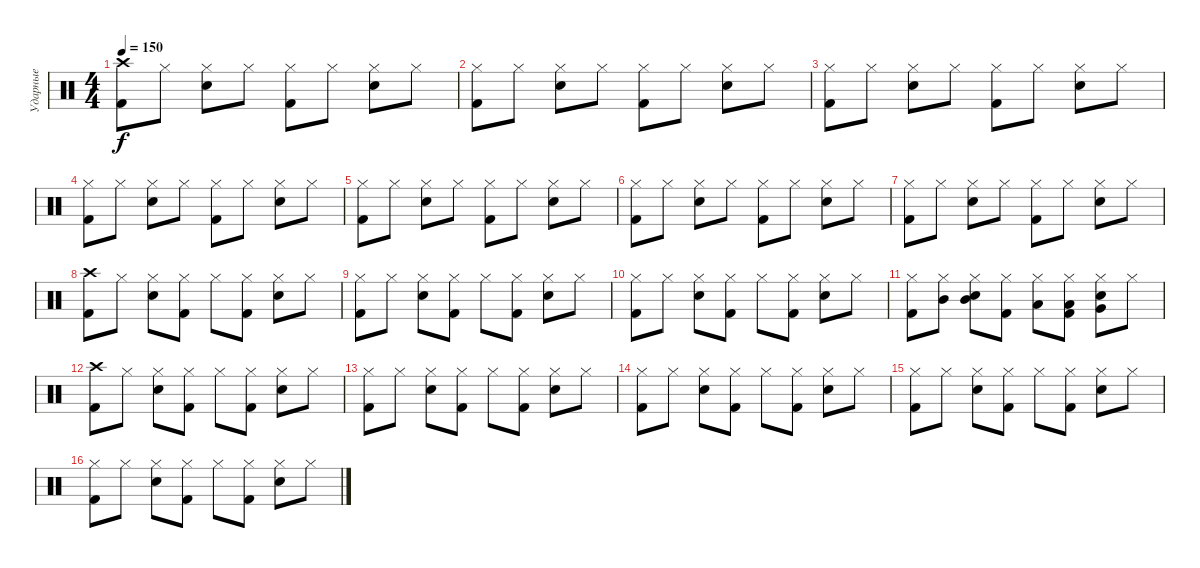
\track ("Ударные" "Ударные") {instrument percussion}
\staff {score}
\articulation defaults
\ts (4 4)
\tempo 150
\clef neutral
\ks c
("Crash high (hit)" "Kick (hit) 2").8{dy f} "Hi-Hat (closed)".8 ("Hi-Hat (closed)" "Snare (hit) 2").8 "Hi-Hat (closed)".8 ("Hi-Hat (closed)" "Kick (hit) 2").8 "Hi-Hat (closed)".8 ("Hi-Hat (closed)" "Snare (hit) 2").8 "Hi-Hat (closed)".8 |
("Hi-Hat (closed)" "Kick (hit) 2").8 "Hi-Hat (closed)".8 ("Hi-Hat (closed)" "Snare (hit) 2").8 "Hi-Hat (closed)".8 ("Hi-Hat (closed)" "Kick (hit) 2").8 "Hi-Hat (closed)".8 ("Hi-Hat (closed)" "Snare (hit) 2").8 "Hi-Hat (closed)".8 |
("Hi-Hat (closed)" "Kick (hit) 2").8 "Hi-Hat (closed)".8 ("Hi-Hat (closed)" "Snare (hit) 2").8 "Hi-Hat (closed)".8 ("Hi-Hat (closed)" "Kick (hit) 2").8 "Hi-Hat (closed)".8 ("Hi-Hat (closed)" "Snare (hit) 2").8 "Hi-Hat (closed)".8 |
("Hi-Hat (closed)" "Kick (hit) 2").8 "Hi-Hat (closed)".8 ("Hi-Hat (closed)" "Snare (hit) 2").8 "Hi-Hat (closed)".8 ("Hi-Hat (closed)" "Kick (hit) 2").8 "Hi-Hat (closed)".8 ("Hi-Hat (closed)" "Snare (hit) 2").8 "Hi-Hat (closed)".8 |
("Hi-Hat (closed)" "Kick (hit) 2").8 "Hi-Hat (closed)".8 ("Hi-Hat (closed)" "Snare (hit) 2").8 "Hi-Hat (closed)".8 ("Hi-Hat (closed)" "Kick (hit) 2").8 "Hi-Hat (closed)".8 ("Hi-Hat (closed)" "Snare (hit) 2").8 "Hi-Hat (closed)".8 |
("Hi-Hat (closed)" "Kick (hit) 2").8 "Hi-Hat (closed)".8 ("Hi-Hat (closed)" "Snare (hit) 2").8 "Hi-Hat (closed)".8 ("Hi-Hat (closed)" "Kick (hit) 2").8 "Hi-Hat (closed)".8 ("Hi-Hat (closed)" "Snare (hit) 2").8 "Hi-Hat (closed)".8 |
("Hi-Hat (closed)" "Kick (hit) 2").8 "Hi-Hat (closed)".8 ("Hi-Hat (closed)" "Snare (hit) 2").8 "Hi-Hat (closed)".8 ("Hi-Hat (closed)" "Kick (hit) 2").8 "Hi-Hat (closed)".8 ("Hi-Hat (closed)" "Snare (hit) 2").8 "Hi-Hat (closed)".8 |
("Crash high (hit)" "Kick (hit) 2").8 "Hi-Hat (closed)".8 ("Hi-Hat (closed)" "Snare (hit) 2").8 ("Hi-Hat (closed)" "Kick (hit) 2").8 "Hi-Hat (closed)".8 ("Hi-Hat (closed)" "Kick (hit) 2").8 ("Hi-Hat (closed)" "Snare (hit) 2").8 "Hi-Hat (closed)".8 |
("Hi-Hat (closed)" "Kick (hit) 2").8 "Hi-Hat (closed)".8 ("Hi-Hat (closed)" "Snare (hit) 2").8 ("Hi-Hat (closed)" "Kick (hit) 2").8 "Hi-Hat (closed)".8 ("Hi-Hat (closed)" "Kick (hit) 2").8 ("Hi-Hat (closed)" "Snare (hit) 2").8 "Hi-Hat (closed)".8 |
("Hi-Hat (closed)" "Kick (hit) 2").8 "Hi-Hat (closed)".8 ("Hi-Hat (closed)" "Snare (hit) 2").8 ("Hi-Hat (closed)" "Kick (hit) 2").8 "Hi-Hat (closed)".8 ("Hi-Hat (closed)" "Kick (hit) 2").8 ("Hi-Hat (closed)" "Snare (hit) 2").8 "Hi-Hat (closed)".8 |
("Hi-Hat (closed)" "Kick (hit) 2").8 ("Hi-Hat (closed)" "Mid Tom (hit)").8 ("Hi-Hat (closed)" "Mid Tom (hit)" "Snare (hit) 2").8 ("Hi-Hat (closed)" "Kick (hit) 2").8 ("Hi-Hat (closed)" "Low Tom (hit)").8 ("Hi-Hat (closed)" "Low Tom (hit)" "Kick (hit) 2").8 ("Hi-Hat (closed)" "Very Low Tom (hit)" "Snare (hit) 2").8 "Hi-Hat (closed)".8 |
("Crash high (hit)" "Kick (hit) 2").8 "Hi-Hat (closed)".8 ("Hi-Hat (closed)" "Snare (hit) 2").8 ("Hi-Hat (closed)" "Kick (hit) 2").8 "Hi-Hat (closed)".8 ("Hi-Hat (closed)" "Kick (hit) 2").8 ("Hi-Hat (closed)" "Snare (hit) 2").8 "Hi-Hat (closed)".8 |
("Hi-Hat (closed)" "Kick (hit) 2").8 "Hi-Hat (closed)".8 ("Hi-Hat (closed)" "Snare (hit) 2").8 ("Hi-Hat (closed)" "Kick (hit) 2").8 "Hi-Hat (closed)".8 ("Hi-Hat (closed)" "Kick (hit) 2").8 ("Hi-Hat (closed)" "Snare (hit) 2").8 "Hi-Hat (closed)".8 |
("Hi-Hat (closed)" "Kick (hit) 2").8 "Hi-Hat (closed)".8 ("Hi-Hat (closed)" "Snare (hit) 2").8 ("Hi-Hat (closed)" "Kick (hit) 2").8 "Hi-Hat (closed)".8 ("Hi-Hat (closed)" "Kick (hit) 2").8 ("Hi-Hat (closed)" "Snare (hit) 2").8 "Hi-Hat (closed)".8 |
("Hi-Hat (closed)" "Kick (hit) 2").8 "Hi-Hat (closed)".8 ("Hi-Hat (closed)" "Snare (hit) 2").8 ("Hi-Hat (closed)" "Kick (hit) 2").8 "Hi-Hat (closed)".8 ("Hi-Hat (closed)" "Kick (hit) 2").8 ("Hi-Hat (closed)" "Snare (hit) 2").8 "Hi-Hat (closed)".8 |
("Hi-Hat (closed)" "Kick (hit) 2").8 "Hi-Hat (closed)".8 ("Hi-Hat (closed)" "Snare (hit) 2").8 ("Hi-Hat (closed)" "Kick (hit) 2").8 "Hi-Hat (closed)".8 ("Hi-Hat (closed)" "Kick (hit) 2").8 ("Hi-Hat (closed)" "Snare (hit) 2").8 "Hi-Hat (closed)".8
